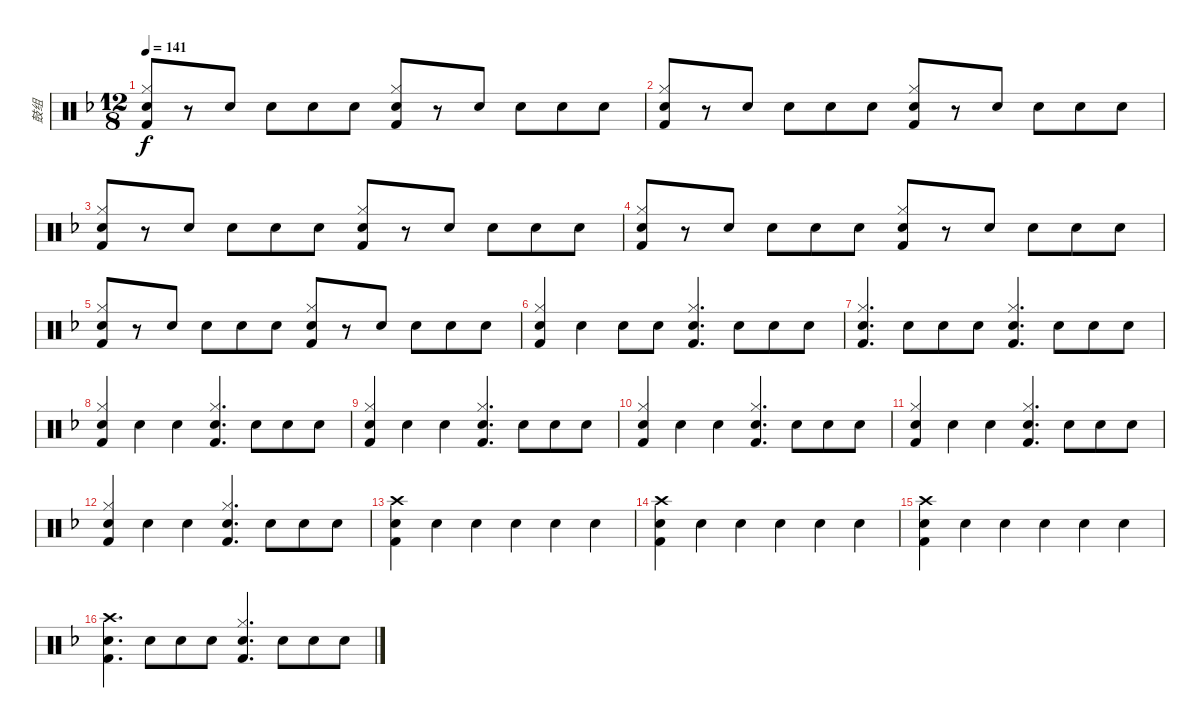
\track ("鼓组" "鼓组") {instrument percussion}
\staff {score}
\articulation defaults
\ts (12 8)
\tempo 141
\clef neutral
\ks f
("Snare (hit) 2" "Hi-Hat (closed)" "Kick (hit) 2").8{dy f} r.8 "Snare (hit) 2".8 "Snare (hit) 2".8 "Snare (hit) 2".8 "Snare (hit) 2".8 ("Snare (hit) 2" "Hi-Hat (closed)" "Kick (hit) 2").8 r.8 "Snare (hit) 2".8 "Snare (hit) 2".8 "Snare (hit) 2".8 "Snare (hit) 2".8 |
("Snare (hit) 2" "Hi-Hat (closed)" "Kick (hit) 2").8 r.8 "Snare (hit) 2".8 "Snare (hit) 2".8 "Snare (hit) 2".8 "Snare (hit) 2".8 ("Snare (hit) 2" "Hi-Hat (closed)" "Kick (hit) 2").8 r.8 "Snare (hit) 2".8 "Snare (hit) 2".8 "Snare (hit) 2".8 "Snare (hit) 2".8 |
("Snare (hit) 2" "Hi-Hat (closed)" "Kick (hit) 2").8 r.8 "Snare (hit) 2".8 "Snare (hit) 2".8 "Snare (hit) 2".8 "Snare (hit) 2".8 ("Snare (hit) 2" "Hi-Hat (closed)" "Kick (hit) 2").8 r.8 "Snare (hit) 2".8 "Snare (hit) 2".8 "Snare (hit) 2".8 "Snare (hit) 2".8 |
("Snare (hit) 2" "Hi-Hat (closed)" "Kick (hit) 2").8 r.8 "Snare (hit) 2".8 "Snare (hit) 2".8 "Snare (hit) 2".8 "Snare (hit) 2".8 ("Snare (hit) 2" "Hi-Hat (closed)" "Kick (hit) 2").8 r.8 "Snare (hit) 2".8 "Snare (hit) 2".8 "Snare (hit) 2".8 "Snare (hit) 2".8 |
("Snare (hit) 2" "Hi-Hat (closed)" "Kick (hit) 2").8 r.8 "Snare (hit) 2".8 "Snare (hit) 2".8 "Snare (hit) 2".8 "Snare (hit) 2".8 ("Snare (hit) 2" "Hi-Hat (closed)" "Kick (hit) 2").8 r.8 "Snare (hit) 2".8 "Snare (hit) 2".8 "Snare (hit) 2".8 "Snare (hit) 2".8 |
("Snare (hit) 2" "Hi-Hat (closed)" "Kick (hit) 2").4 "Snare (hit) 2".4 "Snare (hit) 2".8 "Snare (hit) 2".8 ("Snare (hit) 2" "Hi-Hat (closed)" "Kick (hit) 2").4{d} "Snare (hit) 2".8 "Snare (hit) 2".8 "Snare (hit) 2".8 |
("Snare (hit) 2" "Hi-Hat (closed)" "Kick (hit) 2").4{d} "Snare (hit) 2".8 "Snare (hit) 2".8 "Snare (hit) 2".8 ("Snare (hit) 2" "Hi-Hat (closed)" "Kick (hit) 2").4{d} "Snare (hit) 2".8 "Snare (hit) 2".8 "Snare (hit) 2".8 |
("Snare (hit) 2" "Hi-Hat (closed)" "Kick (hit) 2").4 "Snare (hit) 2".4 "Snare (hit) 2".4 ("Snare (hit) 2" "Hi-Hat (closed)" "Kick (hit) 2").4{d} "Snare (hit) 2".8 "Snare (hit) 2".8 "Snare (hit) 2".8 |
("Snare (hit) 2" "Hi-Hat (closed)" "Kick (hit) 2").4 "Snare (hit) 2".4 "Snare (hit) 2".4 ("Snare (hit) 2" "Hi-Hat (closed)" "Kick (hit) 2").4{d} "Snare (hit) 2".8 "Snare (hit) 2".8 "Snare (hit) 2".8 |
("Snare (hit) 2" "Hi-Hat (closed)" "Kick (hit) 2").4 "Snare (hit) 2".4 "Snare (hit) 2".4 ("Snare (hit) 2" "Hi-Hat (closed)" "Kick (hit) 2").4{d} "Snare (hit) 2".8 "Snare (hit) 2".8 "Snare (hit) 2".8 |
("Snare (hit) 2" "Hi-Hat (closed)" "Kick (hit) 2").4 "Snare (hit) 2".4 "Snare (hit) 2".4 ("Snare (hit) 2" "Hi-Hat (closed)" "Kick (hit) 2").4{d} "Snare (hit) 2".8 "Snare (hit) 2".8 "Snare (hit) 2".8 |
("Snare (hit) 2" "Hi-Hat (closed)" "Kick (hit) 2").4 "Snare (hit) 2".4 "Snare (hit) 2".4 ("Snare (hit) 2" "Hi-Hat (closed)" "Kick (hit) 2").4{d} "Snare (hit) 2".8 "Snare (hit) 2".8 "Snare (hit) 2".8 |
("Snare (hit) 2" "Crash high (hit)" "Kick (hit) 2").4 "Snare (hit) 2".4 "Snare (hit) 2".4 "Snare (hit) 2".4 "Snare (hit) 2".4 "Snare (hit) 2".4 |
("Snare (hit) 2" "Crash high (hit)" "Kick (hit) 2").4 "Snare (hit) 2".4 "Snare (hit) 2".4 "Snare (hit) 2".4 "Snare (hit) 2".4 "Snare (hit) 2".4 |
("Snare (hit) 2" "Crash high (hit)" "Kick (hit) 2").4 "Snare (hit) 2".4 "Snare (hit) 2".4 "Snare (hit) 2".4 "Snare (hit) 2".4 "Snare (hit) 2".4 |
("Snare (hit) 2" "Crash high (hit)" "Kick (hit) 2").4{d} "Snare (hit) 2".8 "Snare (hit) 2".8 "Snare (hit) 2".8 ("Snare (hit) 2" "Hi-Hat (closed)" "Kick (hit) 2").4{d} "Snare (hit) 2".8 "Snare (hit) 2".8 "Snare (hit) 2".8
